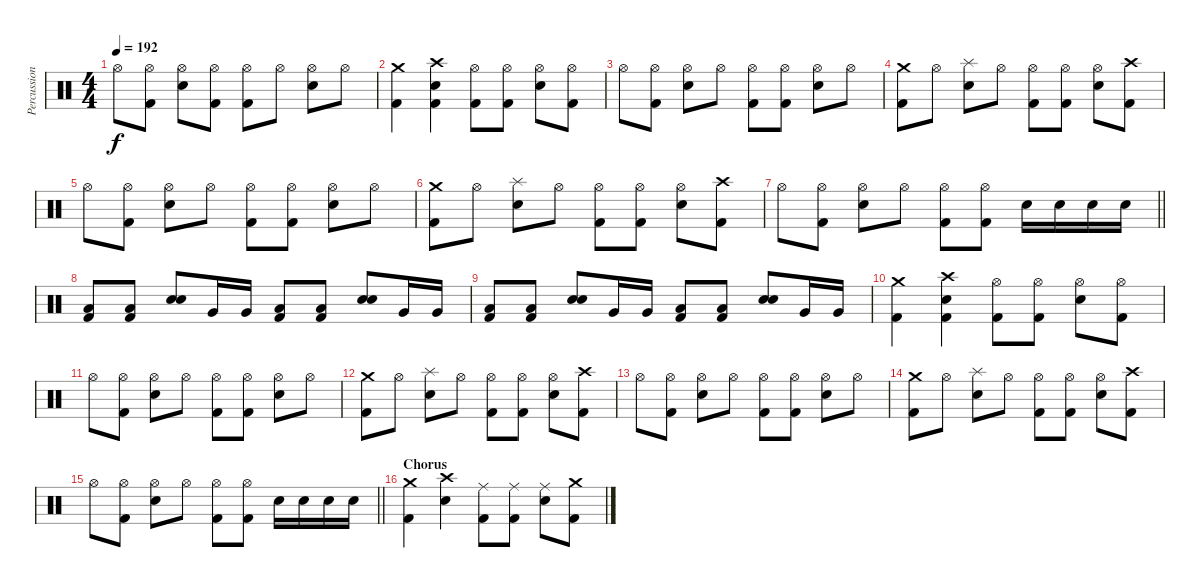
\track ("Percussion" "Percussion") {instrument percussion}
\staff {score}
\articulation defaults
\ts (4 4)
\tempo 192
\clef neutral
\ks c "Hi-Hat (open)".8{dy f}
("Hi-Hat (open)" "Kick (hit) 2").8 ("Hi-Hat (open)" "Electric Snare (hit)").8 ("Hi-Hat (open)" "Kick (hit) 2").8 ("Hi-Hat (open)" "Kick (hit) 2").8 "Hi-Hat (open)".8 ("Hi-Hat (open)" "Electric Snare (hit)").8 "Hi-Hat (open)".8 |
("Crash medium (hit)" "Kick (hit) 2").4 ("Crash high (hit)" "Electric Snare (hit)" "Kick (hit) 2").4 ("Hi-Hat (open)" "Kick (hit) 2").8 ("Hi-Hat (open)" "Kick (hit) 2").8 ("Hi-Hat (open)" "Electric Snare (hit)").8 ("Hi-Hat (open)" "Kick (hit) 2").8 |
"Hi-Hat (open)".8 ("Hi-Hat (open)" "Kick (hit) 2").8 ("Hi-Hat (open)" "Electric Snare (hit)").8 "Hi-Hat (open)".8 ("Hi-Hat (open)" "Kick (hit) 2").8 ("Hi-Hat (open)" "Kick (hit) 2").8 ("Hi-Hat (open)" "Electric Snare (hit)").8 "Hi-Hat (open)".8 |
("Crash medium (hit)" "Kick (hit) 2").8 "Hi-Hat (open)".8 ("Splash (hit)" "Electric Snare (hit)").8 "Hi-Hat (open)".8 ("Hi-Hat (open)" "Kick (hit) 2").8 ("Hi-Hat (open)" "Kick (hit) 2").8 ("Hi-Hat (open)" "Electric Snare (hit)").8 ("Crash high (hit)" "Kick (hit) 2").8 |
"Hi-Hat (open)".8 ("Hi-Hat (open)" "Kick (hit) 2").8 ("Hi-Hat (open)" "Electric Snare (hit)").8 "Hi-Hat (open)".8 ("Hi-Hat (open)" "Kick (hit) 2").8 ("Hi-Hat (open)" "Kick (hit) 2").8 ("Hi-Hat (open)" "Electric Snare (hit)").8 "Hi-Hat (open)".8 |
("Crash medium (hit)" "Kick (hit) 2").8 "Hi-Hat (open)".8 ("Splash (hit)" "Electric Snare (hit)").8 "Hi-Hat (open)".8 ("Hi-Hat (open)" "Kick (hit) 2").8 ("Hi-Hat (open)" "Kick (hit) 2").8 ("Hi-Hat (open)" "Electric Snare (hit)").8 ("Crash high (hit)" "Kick (hit) 2").8 |
\barLineRight lightlight "Hi-Hat (open)".8
("Hi-Hat (open)" "Kick (hit) 2").8 ("Hi-Hat (open)" "Electric Snare (hit)").8 "Hi-Hat (open)".8 ("Hi-Hat (open)" "Kick (hit) 2").8 ("Hi-Hat (open)" "Kick (hit) 2").8 "Electric Snare (hit)".16 "Electric Snare (hit)".16 "Electric Snare (hit)".16 "Electric Snare (hit)".16 |
("Low Floor Tom (hit)" "Kick (hit) 2").8 ("Low Floor Tom (hit)" "Kick (hit) 2").8 ("Electric Snare (hit)" "Electric Snare (hit)").8 "Very Low Tom (hit)".16 "Very Low Tom (hit)".16 ("Low Floor Tom (hit)" "Kick (hit) 2").8 ("Low Floor Tom (hit)" "Kick (hit) 2").8 ("Electric Snare (hit)" "Electric Snare (hit)").8 "Very Low Tom (hit)".16 "Very Low Tom (hit)".16 |
("Low Floor Tom (hit)" "Kick (hit) 2").8 ("Low Floor Tom (hit)" "Kick (hit) 2").8 ("Electric Snare (hit)" "Electric Snare (hit)").8 "Very Low Tom (hit)".16 "Very Low Tom (hit)".16 ("Low Floor Tom (hit)" "Kick (hit) 2").8 ("Low Floor Tom (hit)" "Kick (hit) 2").8 ("Electric Snare (hit)" "Electric Snare (hit)").8 "Very Low Tom (hit)".16 "Very Low Tom (hit)".16 |
("Crash medium (hit)" "Kick (hit) 2").4 ("Crash high (hit)" "Electric Snare (hit)" "Kick (hit) 2").4 ("Hi-Hat (open)" "Kick (hit) 2").8 ("Hi-Hat (open)" "Kick (hit) 2").8 ("Hi-Hat (open)" "Electric Snare (hit)").8 ("Hi-Hat (open)" "Kick (hit) 2").8 |
"Hi-Hat (open)".8 ("Hi-Hat (open)" "Kick (hit) 2").8 ("Hi-Hat (open)" "Electric Snare (hit)").8 "Hi-Hat (open)".8 ("Hi-Hat (open)" "Kick (hit) 2").8 ("Hi-Hat (open)" "Kick (hit) 2").8 ("Hi-Hat (open)" "Electric Snare (hit)").8 "Hi-Hat (open)".8 |
("Crash medium (hit)" "Kick (hit) 2").8 "Hi-Hat (open)".8 ("Splash (hit)" "Electric Snare (hit)").8 "Hi-Hat (open)".8 ("Hi-Hat (open)" "Kick (hit) 2").8 ("Hi-Hat (open)" "Kick (hit) 2").8 ("Hi-Hat (open)" "Electric Snare (hit)").8 ("Crash high (hit)" "Kick (hit) 2").8 |
"Hi-Hat (open)".8 ("Hi-Hat (open)" "Kick (hit) 2").8 ("Hi-Hat (open)" "Electric Snare (hit)").8 "Hi-Hat (open)".8 ("Hi-Hat (open)" "Kick (hit) 2").8 ("Hi-Hat (open)" "Kick (hit) 2").8 ("Hi-Hat (open)" "Electric Snare (hit)").8 "Hi-Hat (open)".8 |
("Crash medium (hit)" "Kick (hit) 2").8 "Hi-Hat (open)".8 ("Splash (hit)" "Electric Snare (hit)").8 "Hi-Hat (open)".8 ("Hi-Hat (open)" "Kick (hit) 2").8 ("Hi-Hat (open)" "Kick (hit) 2").8 ("Hi-Hat (open)" "Electric Snare (hit)").8 ("Crash high (hit)" "Kick (hit) 2").8 |
\barLineRight lightlight "Hi-Hat (open)".8
("Hi-Hat (open)" "Kick (hit) 2").8 ("Hi-Hat (open)" "Electric Snare (hit)").8 "Hi-Hat (open)".8 ("Hi-Hat (open)" "Kick (hit) 2").8 ("Hi-Hat (open)" "Kick (hit) 2").8 "Electric Snare (hit)".16 "Electric Snare (hit)".16 "Electric Snare (hit)".16 "Electric Snare (hit)".16 |
\section ("" "Chorus")
("Crash medium (hit)" "Kick (hit) 2").4 ("Crash high (hit)" "Electric Snare (hit)").4 ("Ride (middle)" "Kick (hit) 2").8 ("Ride (middle)" "Kick (hit) 2").8 ("Ride (middle)" "Electric Snare (hit)").8 ("Crash medium (hit)" "Kick (hit) 2").8
